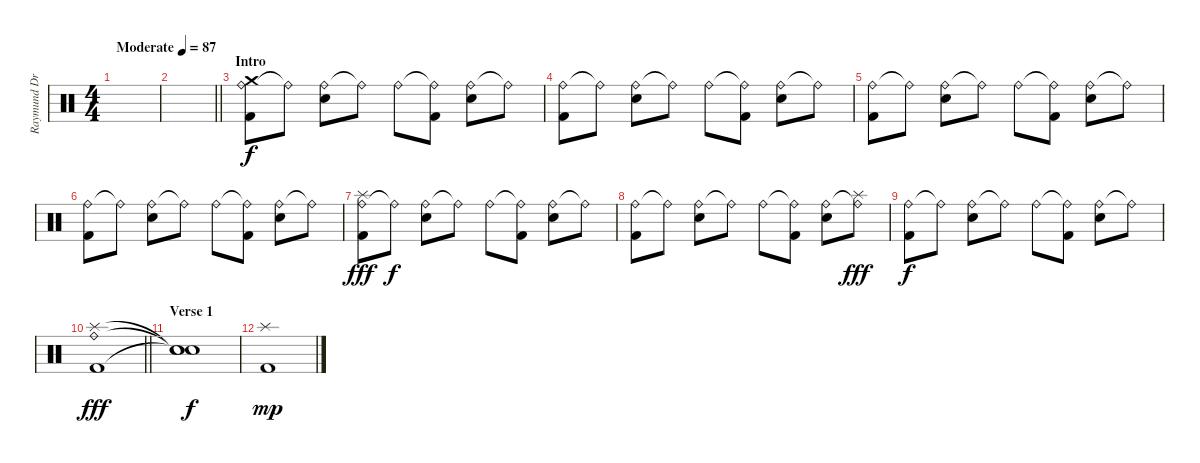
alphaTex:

\track ("Raymund Drums" "Raymund Dr") {instrument percussion}
\staff {score}
\articulation defaults
\ts (4 4)
\tempo (87 "Moderate")
\clef neutral
\ks c
|
\barLineRight lightlight
|
\section ("" "Intro")
("Ride (bell)" "Kick (hit) 2" "Crash medium (hit)").8 "Ride (bell)"{t}.8{dy f} ("Ride (bell)" "Snare (hit) 2").8 "Ride (bell)"{t}.8 "Ride (bell)".8 ("Ride (bell)"{t} "Kick (hit) 2").8 ("Ride (bell)" "Snare (hit) 2").8 "Ride (bell)"{t}.8 |
("Ride (bell)" "Kick (hit) 2").8 "Ride (bell)"{t}.8 ("Ride (bell)" "Snare (hit) 2").8 "Ride (bell)"{t}.8 "Ride (bell)".8 ("Ride (bell)"{t} "Kick (hit) 2").8 ("Ride (bell)" "Snare (hit) 2").8 "Ride (bell)"{t}.8 |
("Ride (bell)" "Kick (hit) 2").8 "Ride (bell)"{t}.8 ("Ride (bell)" "Snare (hit) 2").8 "Ride (bell)"{t}.8 "Ride (bell)".8 ("Ride (bell)"{t} "Kick (hit) 2").8 ("Ride (bell)" "Snare (hit) 2").8 "Ride (bell)"{t}.8 |
("Ride (bell)" "Kick (hit) 2").8 "Ride (bell)"{t}.8 ("Ride (bell)" "Snare (hit) 2").8 "Ride (bell)"{t}.8 "Ride (bell)".8 ("Ride (bell)"{t} "Kick (hit) 2").8 ("Ride (bell)" "Snare (hit) 2").8 "Ride (bell)"{t}.8 |
("Ride (bell)" "Kick (hit) 2" "Splash (hit)").8{dy fff} "Ride (bell)"{t}.8{dy f} ("Ride (bell)" "Snare (hit) 2").8 "Ride (bell)"{t}.8 "Ride (bell)".8 ("Ride (bell)"{t} "Kick (hit) 2").8 ("Ride (bell)" "Snare (hit) 2").8 "Ride (bell)"{t}.8 |
("Ride (bell)" "Kick (hit) 2").8 "Ride (bell)"{t}.8 ("Ride (bell)" "Snare (hit) 2").8 "Ride (bell)"{t}.8 "Ride (bell)".8 ("Ride (bell)"{t} "Kick (hit) 2").8 ("Ride (bell)" "Snare (hit) 2").8 ("Ride (bell)"{t} "Splash (hit)").8{dy fff} |
("Ride (bell)" "Kick (hit) 2").8{dy f} "Ride (bell)"{t}.8 ("Ride (bell)" "Snare (hit) 2").8 "Ride (bell)"{t}.8 "Ride (bell)".8 ("Ride (bell)"{t} "Kick (hit) 2").8 ("Ride (bell)" "Snare (hit) 2").8 "Ride (bell)"{t}.8 |
\barLineRight lightlight
("Ride (bell)" "Kick (hit) 2" "Splash (hit)").1{dy fff} |
\section ("" "Verse 1")
("Snare (hit)"{t} "Snare (hit)"{t} "Snare (hit)"{t}).1{dy f} |
("Kick (hit) 2" "Splash (hit)").1{dy mp}
